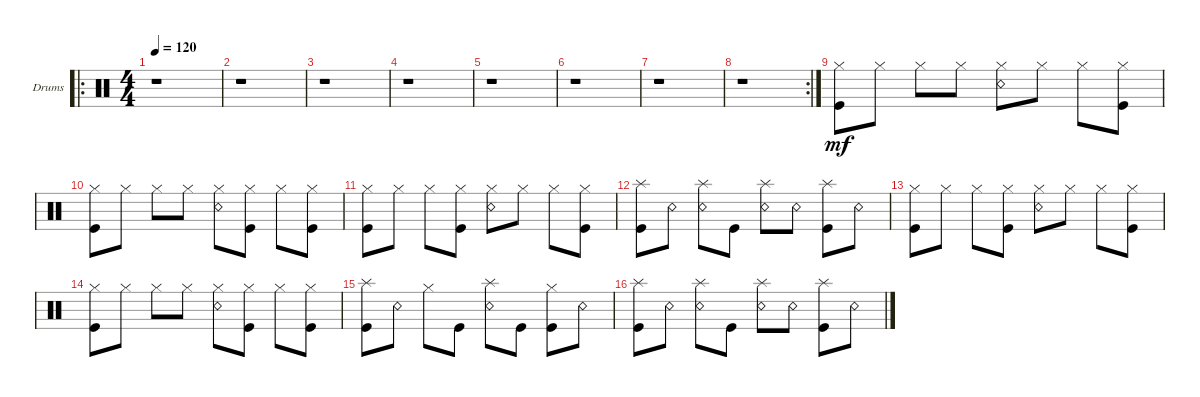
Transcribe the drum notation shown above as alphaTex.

\defaultSystemsLayout 4
\bracketExtendMode groupsimilarinstruments
\firstSystemTrackNameOrientation horizontal
\otherSystemsTrackNameOrientation horizontal
\track ("Roman Vorontcov" "Drums") {instrument percussion}
\staff {score}
\articulation defaults
\ro
\ts (4 4)
\tempo 120
\clef neutral
\ks c
r.1{dy mf} |
r.1 |
r.1 |
r.1 |
r.1 |
r.1 |
r.1 |
\rc 2
r.1 |
("Kick (hit)" "Hi-Hat (closed)").8 "Hi-Hat (closed)".8 "Hi-Hat (closed)".8 "Hi-Hat (closed)".8 ("Snare (rim shot)" "Hi-Hat (closed)").8 "Hi-Hat (closed)".8 "Hi-Hat (closed)".8 ("Kick (hit)" "Hi-Hat (closed)").8 |
("Kick (hit)" "Hi-Hat (closed)").8 "Hi-Hat (closed)".8 "Hi-Hat (closed)".8 "Hi-Hat (closed)".8 ("Snare (rim shot)" "Hi-Hat (closed)").8 ("Kick (hit)" "Hi-Hat (closed)").8 "Hi-Hat (closed)".8 ("Kick (hit)" "Hi-Hat (closed)").8 |
("Kick (hit)" "Hi-Hat (closed)").8 "Hi-Hat (closed)".8 "Hi-Hat (closed)".8 ("Kick (hit)" "Hi-Hat (closed)").8 ("Snare (rim shot)" "Hi-Hat (closed)").8 "Hi-Hat (closed)".8 "Hi-Hat (closed)".8 ("Hi-Hat (closed)" "Kick (hit)").8 |
("Kick (hit)" "Splash (hit)").8 "Snare (rim shot)".8 ("Snare (rim shot)" "Splash (hit)").8 "Kick (hit)".8 ("Snare (rim shot)" "Splash (hit)").8 "Snare (rim shot)".8 ("Kick (hit)" "Splash (hit)").8 "Snare (rim shot)".8 |
("Kick (hit)" "Hi-Hat (closed)").8 "Hi-Hat (closed)".8 "Hi-Hat (closed)".8 ("Hi-Hat (closed)" "Kick (hit)").8 ("Snare (rim shot)" "Hi-Hat (closed)").8 "Hi-Hat (closed)".8 "Hi-Hat (closed)".8 ("Kick (hit)" "Hi-Hat (closed)").8 |
("Kick (hit)" "Hi-Hat (closed)").8 "Hi-Hat (closed)".8 "Hi-Hat (closed)".8 "Hi-Hat (closed)".8 ("Snare (rim shot)" "Hi-Hat (closed)").8 ("Kick (hit)" "Hi-Hat (closed)").8 "Hi-Hat (closed)".8 ("Kick (hit)" "Hi-Hat (closed)").8 |
("Kick (hit)" "Splash (hit)").8 "Snare (rim shot)".8 "Hi-Hat (closed)".8 "Kick (hit)".8 ("Snare (rim shot)" "Splash (hit)").8 "Kick (hit)".8 ("Kick (hit)" "Hi-Hat (closed)").8 "Snare (rim shot)".8 |
("Kick (hit)" "Splash (hit)").8 "Snare (rim shot)".8 ("Snare (rim shot)" "Splash (hit)").8 "Kick (hit)".8 ("Snare (rim shot)" "Splash (hit)").8 "Snare (rim shot)".8 ("Kick (hit)" "Splash (hit)").8 "Snare (rim shot)".8
